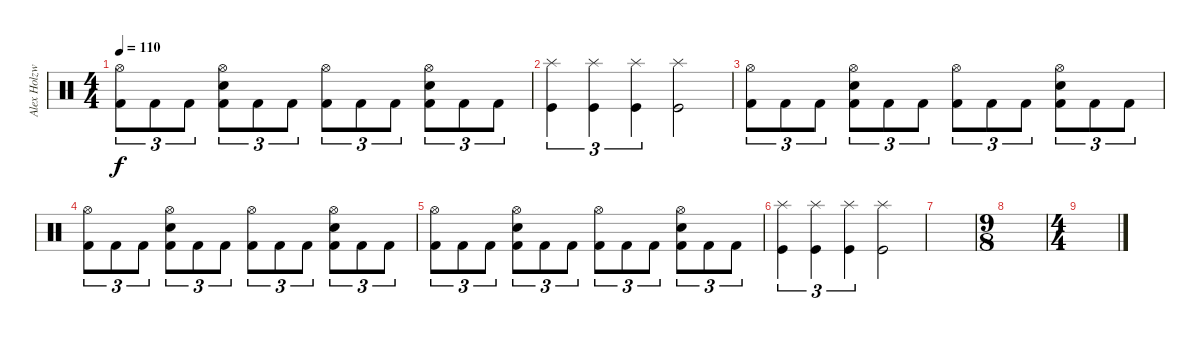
\track ("Alex Holzwarth" "Alex Holzw") {instrument percussion}
\staff {score}
\articulation defaults
\ts (4 4)
\tempo 110
\clef neutral
\ks c
("Hi-Hat (open)" "Kick (hit) 2").8{tu (3 2) dy f} "Kick (hit) 2".8{tu (3 2)} "Kick (hit) 2".8{tu (3 2)} ("Hi-Hat (open)" "Snare (hit) 2" "Kick (hit) 2").8{tu (3 2)} "Kick (hit) 2".8{tu (3 2)} "Kick (hit) 2".8{tu (3 2)} ("Hi-Hat (open)" "Kick (hit) 2").8{tu (3 2)} "Kick (hit) 2".8{tu (3 2)} "Kick (hit) 2".8{tu (3 2)} ("Hi-Hat (open)" "Snare (hit) 2" "Kick (hit) 2").8{tu (3 2)} "Kick (hit) 2".8{tu (3 2)} "Kick (hit) 2".8{tu (3 2)} |
("Splash (hit)" "Kick (hit)").4{tu (3 2)} ("Splash (hit)" "Kick (hit)").4{tu (3 2)} ("Splash (hit)" "Kick (hit)").4{tu (3 2)} ("Splash (hit)" "Kick (hit)").2 |
("Hi-Hat (open)" "Kick (hit) 2").8{tu (3 2)} "Kick (hit) 2".8{tu (3 2)} "Kick (hit) 2".8{tu (3 2)} ("Hi-Hat (open)" "Snare (hit) 2" "Kick (hit) 2").8{tu (3 2)} "Kick (hit) 2".8{tu (3 2)} "Kick (hit) 2".8{tu (3 2)} ("Hi-Hat (open)" "Kick (hit) 2").8{tu (3 2)} "Kick (hit) 2".8{tu (3 2)} "Kick (hit) 2".8{tu (3 2)} ("Hi-Hat (open)" "Snare (hit) 2" "Kick (hit) 2").8{tu (3 2)} "Kick (hit) 2".8{tu (3 2)} "Kick (hit) 2".8{tu (3 2)} |
("Hi-Hat (open)" "Kick (hit) 2").8{tu (3 2)} "Kick (hit) 2".8{tu (3 2)} "Kick (hit) 2".8{tu (3 2)} ("Hi-Hat (open)" "Snare (hit) 2" "Kick (hit) 2").8{tu (3 2)} "Kick (hit) 2".8{tu (3 2)} "Kick (hit) 2".8{tu (3 2)} ("Hi-Hat (open)" "Kick (hit) 2").8{tu (3 2)} "Kick (hit) 2".8{tu (3 2)} "Kick (hit) 2".8{tu (3 2)} ("Hi-Hat (open)" "Snare (hit) 2" "Kick (hit) 2").8{tu (3 2)} "Kick (hit) 2".8{tu (3 2)} "Kick (hit) 2".8{tu (3 2)} |
("Hi-Hat (open)" "Kick (hit) 2").8{tu (3 2)} "Kick (hit) 2".8{tu (3 2)} "Kick (hit) 2".8{tu (3 2)} ("Hi-Hat (open)" "Snare (hit) 2" "Kick (hit) 2").8{tu (3 2)} "Kick (hit) 2".8{tu (3 2)} "Kick (hit) 2".8{tu (3 2)} ("Hi-Hat (open)" "Kick (hit) 2").8{tu (3 2)} "Kick (hit) 2".8{tu (3 2)} "Kick (hit) 2".8{tu (3 2)} ("Hi-Hat (open)" "Snare (hit) 2" "Kick (hit) 2").8{tu (3 2)} "Kick (hit) 2".8{tu (3 2)} "Kick (hit) 2".8{tu (3 2)} |
("Splash (hit)" "Kick (hit)").4{tu (3 2)} ("Splash (hit)" "Kick (hit)").4{tu (3 2)} ("Splash (hit)" "Kick (hit)").4{tu (3 2)} ("Splash (hit)" "Kick (hit)").2 |
|
\ts (9 8)
|
\ts (4 4)
